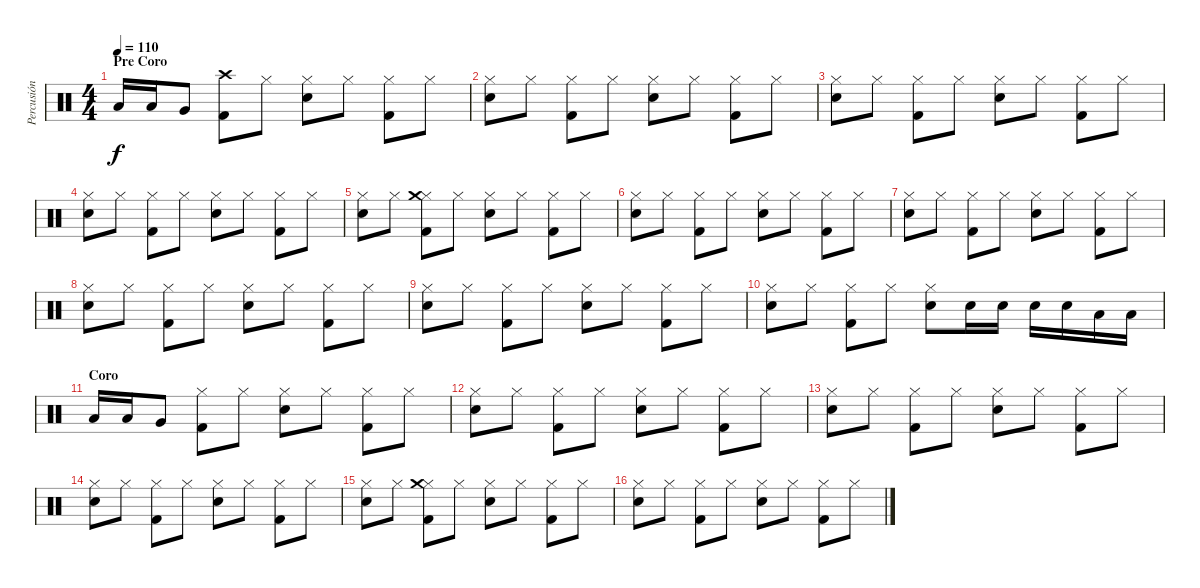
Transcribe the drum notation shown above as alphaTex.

\track ("Percusión" "Percusión") {instrument percussion}
\staff {score}
\articulation defaults
\ts (4 4)
\section ("" "Pre Coro")
\tempo 110
\clef neutral
\ks c "Low Tom (hit)".16{dy f} "Low Tom (hit)".16 "Very Low Tom (hit)".8
("Crash high (hit)" "Kick (hit) 2").8 "Hi-Hat (closed)".8 ("Hi-Hat (closed)" "Electric Snare (hit)").8 "Hi-Hat (closed)".8 ("Hi-Hat (closed)" "Kick (hit) 2").8 "Hi-Hat (closed)".8 |
("Hi-Hat (closed)" "Electric Snare (hit)").8 "Hi-Hat (closed)".8 ("Hi-Hat (closed)" "Kick (hit) 2").8 "Hi-Hat (closed)".8 ("Hi-Hat (closed)" "Electric Snare (hit)").8 "Hi-Hat (closed)".8 ("Hi-Hat (closed)" "Kick (hit) 2").8 "Hi-Hat (closed)".8 |
("Hi-Hat (closed)" "Electric Snare (hit)").8 "Hi-Hat (closed)".8 ("Hi-Hat (closed)" "Kick (hit) 2").8 "Hi-Hat (closed)".8 ("Hi-Hat (closed)" "Electric Snare (hit)").8 "Hi-Hat (closed)".8 ("Hi-Hat (closed)" "Kick (hit) 2").8 "Hi-Hat (closed)".8 |
("Hi-Hat (closed)" "Electric Snare (hit)").8 "Hi-Hat (closed)".8 ("Hi-Hat (closed)" "Kick (hit) 2").8 "Hi-Hat (closed)".8 ("Hi-Hat (closed)" "Electric Snare (hit)").8 "Hi-Hat (closed)".8 ("Hi-Hat (closed)" "Kick (hit) 2").8 "Hi-Hat (closed)".8 |
("Hi-Hat (closed)" "Electric Snare (hit)").8 "Hi-Hat (closed)".8 ("Hi-Hat (closed)" "Kick (hit) 2" "Crash medium (hit)").8 "Hi-Hat (closed)".8 ("Hi-Hat (closed)" "Electric Snare (hit)").8 "Hi-Hat (closed)".8 ("Hi-Hat (closed)" "Kick (hit) 2").8 "Hi-Hat (closed)".8 |
("Hi-Hat (closed)" "Electric Snare (hit)").8 "Hi-Hat (closed)".8 ("Hi-Hat (closed)" "Kick (hit) 2").8 "Hi-Hat (closed)".8 ("Hi-Hat (closed)" "Electric Snare (hit)").8 "Hi-Hat (closed)".8 ("Hi-Hat (closed)" "Kick (hit) 2").8 "Hi-Hat (closed)".8 |
("Hi-Hat (closed)" "Electric Snare (hit)").8 "Hi-Hat (closed)".8 ("Hi-Hat (closed)" "Kick (hit) 2").8 "Hi-Hat (closed)".8 ("Hi-Hat (closed)" "Electric Snare (hit)").8 "Hi-Hat (closed)".8 ("Hi-Hat (closed)" "Kick (hit) 2").8 "Hi-Hat (closed)".8 |
("Hi-Hat (closed)" "Electric Snare (hit)").8 "Hi-Hat (closed)".8 ("Hi-Hat (closed)" "Kick (hit) 2").8 "Hi-Hat (closed)".8 ("Hi-Hat (closed)" "Electric Snare (hit)").8 "Hi-Hat (closed)".8 ("Hi-Hat (closed)" "Kick (hit) 2").8 "Hi-Hat (closed)".8 |
("Hi-Hat (closed)" "Electric Snare (hit)").8 "Hi-Hat (closed)".8 ("Hi-Hat (closed)" "Kick (hit) 2").8 "Hi-Hat (closed)".8 ("Hi-Hat (closed)" "Electric Snare (hit)").8 "Hi-Hat (closed)".8 ("Hi-Hat (closed)" "Kick (hit) 2").8 "Hi-Hat (closed)".8 |
("Hi-Hat (closed)" "Electric Snare (hit)").8 "Hi-Hat (closed)".8 ("Hi-Hat (closed)" "Kick (hit) 2").8 "Hi-Hat (closed)".8 ("Hi-Hat (closed)" "Electric Snare (hit)").8 "Electric Snare (hit)".16 "Electric Snare (hit)".16 "Electric Snare (hit)".16 "Electric Snare (hit)".16 "Low Tom (hit)".16 "Low Tom (hit)".16 |
\section ("" "Coro")
"Low Tom (hit)".16 "Low Tom (hit)".16 "Very Low Tom (hit)".8 ("Hi-Hat (closed)" "Kick (hit) 2").8 "Hi-Hat (closed)".8 ("Hi-Hat (closed)" "Electric Snare (hit)").8 "Hi-Hat (closed)".8 ("Hi-Hat (closed)" "Kick (hit) 2").8 "Hi-Hat (closed)".8 |
("Hi-Hat (closed)" "Electric Snare (hit)").8 "Hi-Hat (closed)".8 ("Hi-Hat (closed)" "Kick (hit) 2").8 "Hi-Hat (closed)".8 ("Hi-Hat (closed)" "Electric Snare (hit)").8 "Hi-Hat (closed)".8 ("Hi-Hat (closed)" "Kick (hit) 2").8 "Hi-Hat (closed)".8 |
("Hi-Hat (closed)" "Electric Snare (hit)").8 "Hi-Hat (closed)".8 ("Hi-Hat (closed)" "Kick (hit) 2").8 "Hi-Hat (closed)".8 ("Hi-Hat (closed)" "Electric Snare (hit)").8 "Hi-Hat (closed)".8 ("Hi-Hat (closed)" "Kick (hit) 2").8 "Hi-Hat (closed)".8 |
("Hi-Hat (closed)" "Electric Snare (hit)").8 "Hi-Hat (closed)".8 ("Hi-Hat (closed)" "Kick (hit) 2").8 "Hi-Hat (closed)".8 ("Hi-Hat (closed)" "Electric Snare (hit)").8 "Hi-Hat (closed)".8 ("Hi-Hat (closed)" "Kick (hit) 2").8 "Hi-Hat (closed)".8 |
("Hi-Hat (closed)" "Electric Snare (hit)").8 "Hi-Hat (closed)".8 ("Hi-Hat (closed)" "Kick (hit) 2" "Crash medium (hit)").8 "Hi-Hat (closed)".8 ("Hi-Hat (closed)" "Electric Snare (hit)").8 "Hi-Hat (closed)".8 ("Hi-Hat (closed)" "Kick (hit) 2").8 "Hi-Hat (closed)".8 |
("Hi-Hat (closed)" "Electric Snare (hit)").8 "Hi-Hat (closed)".8 ("Hi-Hat (closed)" "Kick (hit) 2").8 "Hi-Hat (closed)".8 ("Hi-Hat (closed)" "Electric Snare (hit)").8 "Hi-Hat (closed)".8 ("Hi-Hat (closed)" "Kick (hit) 2").8 "Hi-Hat (closed)".8
